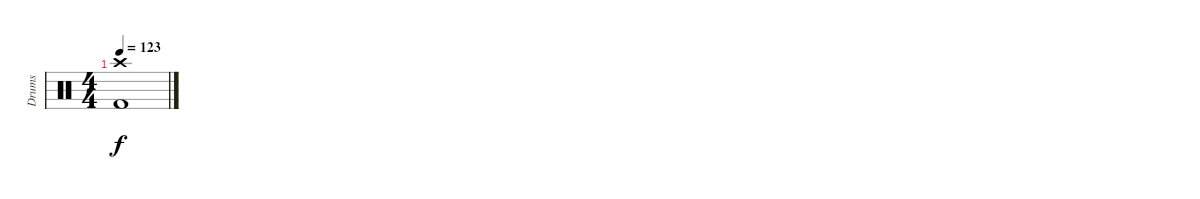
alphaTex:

\track ("Drums" "Drums") {instrument percussion}
\staff {score}
\articulation defaults
\ts (4 4)
\tempo 123
\clef neutral
\ks c
("Crash high (hit)" "Kick (hit) 2").1{dy f}
